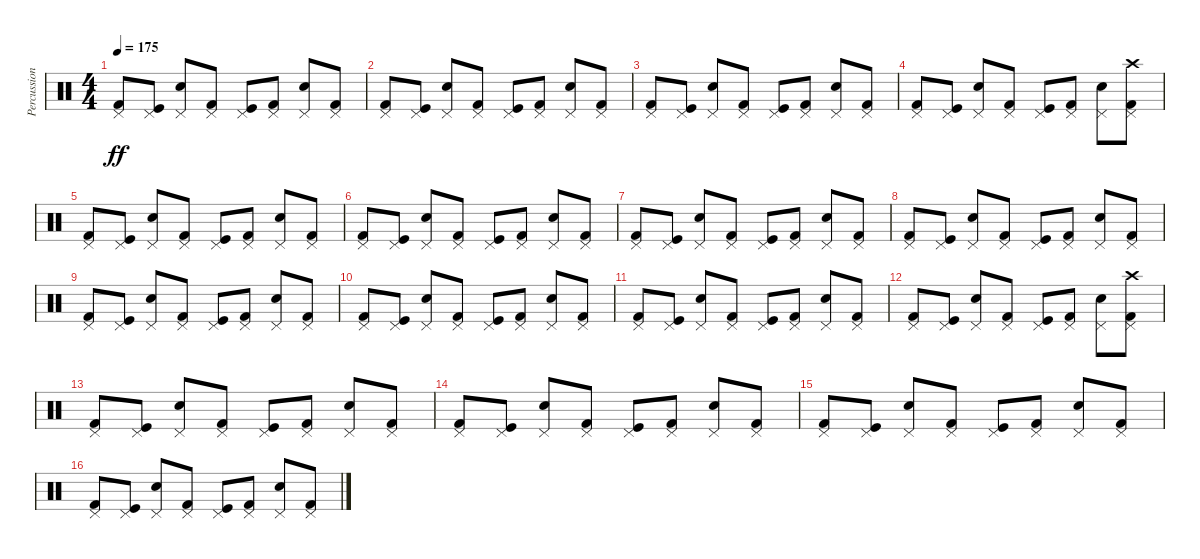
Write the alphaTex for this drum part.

\track ("Percussion (Karlo Žuliæ)" "Percussion") {instrument percussion}
\staff {score}
\articulation defaults
\ts (4 4)
\tempo 175
\clef neutral
\ks c
("Pedal Hi-Hat (hit)" "Kick (hit) 2").8{dy ff} ("Pedal Hi-Hat (hit)" "Kick (hit)").8 ("Pedal Hi-Hat (hit)" "Snare (hit) 2").8 ("Pedal Hi-Hat (hit)" "Kick (hit) 2").8 ("Pedal Hi-Hat (hit)" "Kick (hit)").8 ("Pedal Hi-Hat (hit)" "Kick (hit) 2").8 ("Pedal Hi-Hat (hit)" "Snare (hit) 2").8 ("Pedal Hi-Hat (hit)" "Kick (hit) 2").8 |
("Pedal Hi-Hat (hit)" "Kick (hit) 2").8 ("Pedal Hi-Hat (hit)" "Kick (hit)").8 ("Pedal Hi-Hat (hit)" "Snare (hit) 2").8 ("Pedal Hi-Hat (hit)" "Kick (hit) 2").8 ("Pedal Hi-Hat (hit)" "Kick (hit)").8 ("Pedal Hi-Hat (hit)" "Kick (hit) 2").8 ("Pedal Hi-Hat (hit)" "Snare (hit) 2").8 ("Pedal Hi-Hat (hit)" "Kick (hit) 2").8 |
("Pedal Hi-Hat (hit)" "Kick (hit) 2").8 ("Pedal Hi-Hat (hit)" "Kick (hit)").8 ("Pedal Hi-Hat (hit)" "Snare (hit) 2").8 ("Pedal Hi-Hat (hit)" "Kick (hit) 2").8 ("Pedal Hi-Hat (hit)" "Kick (hit)").8 ("Pedal Hi-Hat (hit)" "Kick (hit) 2").8 ("Pedal Hi-Hat (hit)" "Snare (hit) 2").8 ("Pedal Hi-Hat (hit)" "Kick (hit) 2").8 |
("Pedal Hi-Hat (hit)" "Kick (hit) 2").8 ("Pedal Hi-Hat (hit)" "Kick (hit)").8 ("Pedal Hi-Hat (hit)" "Snare (hit) 2").8 ("Pedal Hi-Hat (hit)" "Kick (hit) 2").8 ("Pedal Hi-Hat (hit)" "Kick (hit)").8 ("Pedal Hi-Hat (hit)" "Kick (hit) 2").8 ("Pedal Hi-Hat (hit)" "Snare (hit) 2").8 ("Pedal Hi-Hat (hit)" "Kick (hit) 2" "Crash high (hit)").8 |
("Pedal Hi-Hat (hit)" "Kick (hit) 2").8 ("Pedal Hi-Hat (hit)" "Kick (hit)").8 ("Pedal Hi-Hat (hit)" "Snare (hit) 2").8 ("Pedal Hi-Hat (hit)" "Kick (hit) 2").8 ("Pedal Hi-Hat (hit)" "Kick (hit)").8 ("Pedal Hi-Hat (hit)" "Kick (hit) 2").8 ("Pedal Hi-Hat (hit)" "Snare (hit) 2").8 ("Pedal Hi-Hat (hit)" "Kick (hit) 2").8 |
("Pedal Hi-Hat (hit)" "Kick (hit) 2").8 ("Pedal Hi-Hat (hit)" "Kick (hit)").8 ("Pedal Hi-Hat (hit)" "Snare (hit) 2").8 ("Pedal Hi-Hat (hit)" "Kick (hit) 2").8 ("Pedal Hi-Hat (hit)" "Kick (hit)").8 ("Pedal Hi-Hat (hit)" "Kick (hit) 2").8 ("Pedal Hi-Hat (hit)" "Snare (hit) 2").8 ("Pedal Hi-Hat (hit)" "Kick (hit) 2").8 |
("Pedal Hi-Hat (hit)" "Kick (hit) 2").8 ("Pedal Hi-Hat (hit)" "Kick (hit)").8 ("Pedal Hi-Hat (hit)" "Snare (hit) 2").8 ("Pedal Hi-Hat (hit)" "Kick (hit) 2").8 ("Pedal Hi-Hat (hit)" "Kick (hit)").8 ("Pedal Hi-Hat (hit)" "Kick (hit) 2").8 ("Pedal Hi-Hat (hit)" "Snare (hit) 2").8 ("Pedal Hi-Hat (hit)" "Kick (hit) 2").8 |
("Pedal Hi-Hat (hit)" "Kick (hit) 2").8 ("Pedal Hi-Hat (hit)" "Kick (hit)").8 ("Pedal Hi-Hat (hit)" "Snare (hit) 2").8 ("Pedal Hi-Hat (hit)" "Kick (hit) 2").8 ("Pedal Hi-Hat (hit)" "Kick (hit)").8 ("Pedal Hi-Hat (hit)" "Kick (hit) 2").8 ("Pedal Hi-Hat (hit)" "Snare (hit) 2").8 ("Pedal Hi-Hat (hit)" "Kick (hit) 2").8 |
("Pedal Hi-Hat (hit)" "Kick (hit) 2").8 ("Pedal Hi-Hat (hit)" "Kick (hit)").8 ("Pedal Hi-Hat (hit)" "Snare (hit) 2").8 ("Pedal Hi-Hat (hit)" "Kick (hit) 2").8 ("Pedal Hi-Hat (hit)" "Kick (hit)").8 ("Pedal Hi-Hat (hit)" "Kick (hit) 2").8 ("Pedal Hi-Hat (hit)" "Snare (hit) 2").8 ("Pedal Hi-Hat (hit)" "Kick (hit) 2").8 |
("Pedal Hi-Hat (hit)" "Kick (hit) 2").8 ("Pedal Hi-Hat (hit)" "Kick (hit)").8 ("Pedal Hi-Hat (hit)" "Snare (hit) 2").8 ("Pedal Hi-Hat (hit)" "Kick (hit) 2").8 ("Pedal Hi-Hat (hit)" "Kick (hit)").8 ("Pedal Hi-Hat (hit)" "Kick (hit) 2").8 ("Pedal Hi-Hat (hit)" "Snare (hit) 2").8 ("Pedal Hi-Hat (hit)" "Kick (hit) 2").8 |
("Pedal Hi-Hat (hit)" "Kick (hit) 2").8 ("Pedal Hi-Hat (hit)" "Kick (hit)").8 ("Pedal Hi-Hat (hit)" "Snare (hit) 2").8 ("Pedal Hi-Hat (hit)" "Kick (hit) 2").8 ("Pedal Hi-Hat (hit)" "Kick (hit)").8 ("Pedal Hi-Hat (hit)" "Kick (hit) 2").8 ("Pedal Hi-Hat (hit)" "Snare (hit) 2").8 ("Pedal Hi-Hat (hit)" "Kick (hit) 2").8 |
("Pedal Hi-Hat (hit)" "Kick (hit) 2").8 ("Pedal Hi-Hat (hit)" "Kick (hit)").8 ("Pedal Hi-Hat (hit)" "Snare (hit) 2").8 ("Pedal Hi-Hat (hit)" "Kick (hit) 2").8 ("Pedal Hi-Hat (hit)" "Kick (hit)").8 ("Pedal Hi-Hat (hit)" "Kick (hit) 2").8 ("Pedal Hi-Hat (hit)" "Snare (hit) 2").8 ("Pedal Hi-Hat (hit)" "Kick (hit) 2" "Crash high (hit)").8 |
("Pedal Hi-Hat (hit)" "Kick (hit) 2").8 ("Pedal Hi-Hat (hit)" "Kick (hit)").8 ("Pedal Hi-Hat (hit)" "Snare (hit) 2").8 ("Pedal Hi-Hat (hit)" "Kick (hit) 2").8 ("Pedal Hi-Hat (hit)" "Kick (hit)").8 ("Pedal Hi-Hat (hit)" "Kick (hit) 2").8 ("Pedal Hi-Hat (hit)" "Snare (hit) 2").8 ("Pedal Hi-Hat (hit)" "Kick (hit) 2").8 |
("Pedal Hi-Hat (hit)" "Kick (hit) 2").8 ("Pedal Hi-Hat (hit)" "Kick (hit)").8 ("Pedal Hi-Hat (hit)" "Snare (hit) 2").8 ("Pedal Hi-Hat (hit)" "Kick (hit) 2").8 ("Pedal Hi-Hat (hit)" "Kick (hit)").8 ("Pedal Hi-Hat (hit)" "Kick (hit) 2").8 ("Pedal Hi-Hat (hit)" "Snare (hit) 2").8 ("Pedal Hi-Hat (hit)" "Kick (hit) 2").8 |
("Pedal Hi-Hat (hit)" "Kick (hit) 2").8 ("Pedal Hi-Hat (hit)" "Kick (hit)").8 ("Pedal Hi-Hat (hit)" "Snare (hit) 2").8 ("Pedal Hi-Hat (hit)" "Kick (hit) 2").8 ("Pedal Hi-Hat (hit)" "Kick (hit)").8 ("Pedal Hi-Hat (hit)" "Kick (hit) 2").8 ("Pedal Hi-Hat (hit)" "Snare (hit) 2").8 ("Pedal Hi-Hat (hit)" "Kick (hit) 2").8 |
("Pedal Hi-Hat (hit)" "Kick (hit) 2").8 ("Pedal Hi-Hat (hit)" "Kick (hit)").8 ("Pedal Hi-Hat (hit)" "Snare (hit) 2").8 ("Pedal Hi-Hat (hit)" "Kick (hit) 2").8 ("Pedal Hi-Hat (hit)" "Kick (hit)").8 ("Pedal Hi-Hat (hit)" "Kick (hit) 2").8 ("Pedal Hi-Hat (hit)" "Snare (hit) 2").8 ("Pedal Hi-Hat (hit)" "Kick (hit) 2").8
